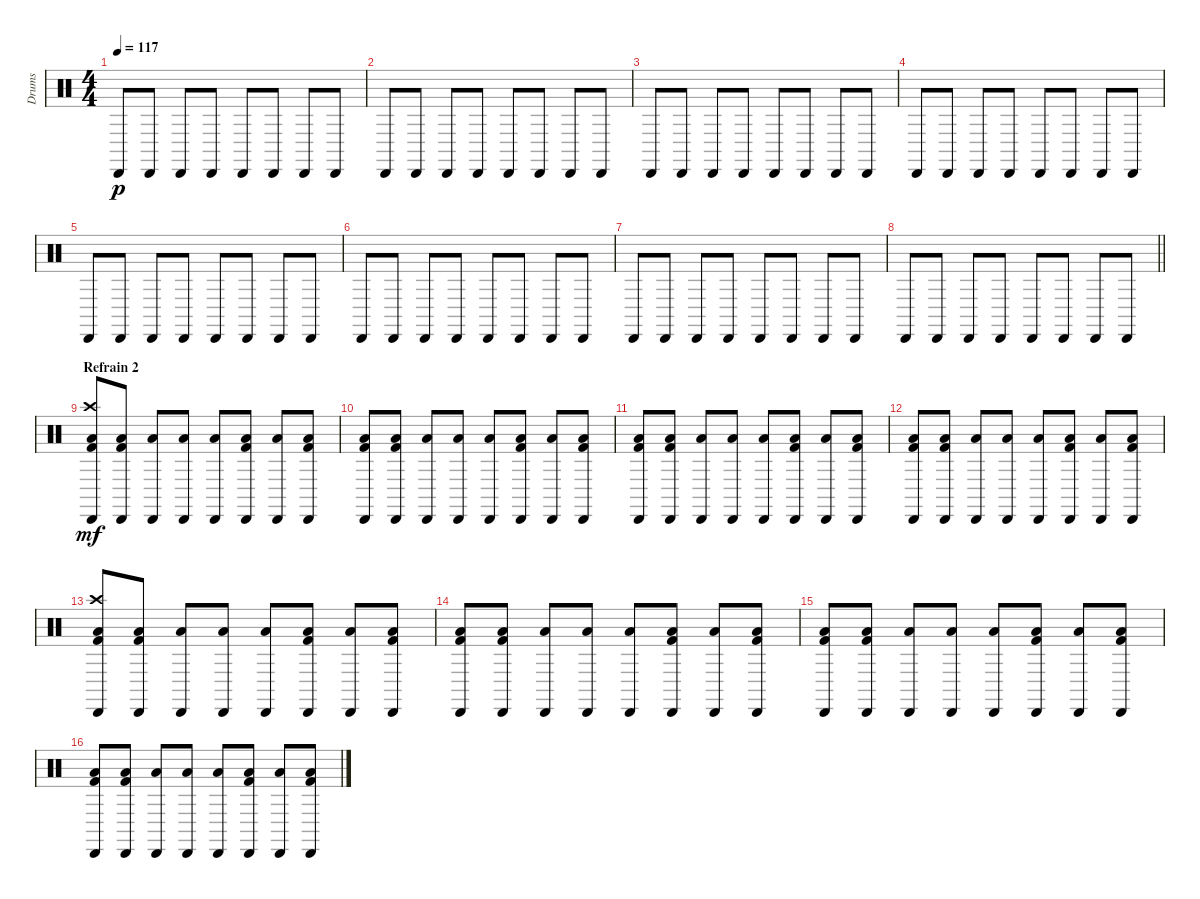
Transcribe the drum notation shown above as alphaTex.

\track ("Drums" "Drums") {instrument percussion}
\staff {score}
\articulation defaults
\ts (4 4)
\tempo 117
\clef neutral
\ks c "Cabasa (hit)".8{dy p} "Cabasa (hit)".8 "Cabasa (hit)".8 "Cabasa (hit)".8 "Cabasa (hit)".8 "Cabasa (hit)".8 "Cabasa (hit)".8 "Cabasa (hit)".8
|
"Cabasa (hit)".8 "Cabasa (hit)".8 "Cabasa (hit)".8 "Cabasa (hit)".8 "Cabasa (hit)".8 "Cabasa (hit)".8 "Cabasa (hit)".8 "Cabasa (hit)".8 |
"Cabasa (hit)".8 "Cabasa (hit)".8 "Cabasa (hit)".8 "Cabasa (hit)".8 "Cabasa (hit)".8 "Cabasa (hit)".8 "Cabasa (hit)".8 "Cabasa (hit)".8 |
"Cabasa (hit)".8 "Cabasa (hit)".8 "Cabasa (hit)".8 "Cabasa (hit)".8 "Cabasa (hit)".8 "Cabasa (hit)".8 "Cabasa (hit)".8 "Cabasa (hit)".8 |
"Cabasa (hit)".8 "Cabasa (hit)".8 "Cabasa (hit)".8 "Cabasa (hit)".8 "Cabasa (hit)".8 "Cabasa (hit)".8 "Cabasa (hit)".8 "Cabasa (hit)".8 |
"Cabasa (hit)".8 "Cabasa (hit)".8 "Cabasa (hit)".8 "Cabasa (hit)".8 "Cabasa (hit)".8 "Cabasa (hit)".8 "Cabasa (hit)".8 "Cabasa (hit)".8 |
"Cabasa (hit)".8 "Cabasa (hit)".8 "Cabasa (hit)".8 "Cabasa (hit)".8 "Cabasa (hit)".8 "Cabasa (hit)".8 "Cabasa (hit)".8 "Cabasa (hit)".8 |
\barLineRight lightlight "Cabasa (hit)".8 "Cabasa (hit)".8 "Cabasa (hit)".8 "Cabasa (hit)".8 "Cabasa (hit)".8 "Cabasa (hit)".8 "Cabasa (hit)".8 "Cabasa (hit)".8
|
\section ("" "Refrain 2")
("Crash high (hit)" "Cabasa (hit)" "Low Floor Tom (hit)" "Kick (hit) 2").8{dy mf} ("Cabasa (hit)" "Low Floor Tom (hit)" "Kick (hit) 2").8 ("Cabasa (hit)" "Low Floor Tom (hit)").8 ("Cabasa (hit)" "Low Floor Tom (hit)").8 ("Cabasa (hit)" "Low Floor Tom (hit)").8 ("Cabasa (hit)" "Low Floor Tom (hit)" "Kick (hit) 2").8 ("Cabasa (hit)" "Low Floor Tom (hit)").8 ("Cabasa (hit)" "Low Floor Tom (hit)" "Kick (hit) 2").8 |
("Cabasa (hit)" "Low Floor Tom (hit)" "Kick (hit) 2").8 ("Cabasa (hit)" "Low Floor Tom (hit)" "Kick (hit) 2").8 ("Cabasa (hit)" "Low Floor Tom (hit)").8 ("Cabasa (hit)" "Low Floor Tom (hit)").8 ("Cabasa (hit)" "Low Floor Tom (hit)").8 ("Cabasa (hit)" "Low Floor Tom (hit)" "Kick (hit) 2").8 ("Cabasa (hit)" "Low Floor Tom (hit)").8 ("Cabasa (hit)" "Low Floor Tom (hit)" "Kick (hit) 2").8 |
("Cabasa (hit)" "Low Floor Tom (hit)" "Kick (hit) 2").8 ("Cabasa (hit)" "Low Floor Tom (hit)" "Kick (hit) 2").8 ("Cabasa (hit)" "Low Floor Tom (hit)").8 ("Cabasa (hit)" "Low Floor Tom (hit)").8 ("Cabasa (hit)" "Low Floor Tom (hit)").8 ("Cabasa (hit)" "Low Floor Tom (hit)" "Kick (hit) 2").8 ("Cabasa (hit)" "Low Floor Tom (hit)").8 ("Cabasa (hit)" "Low Floor Tom (hit)" "Kick (hit) 2").8 |
("Cabasa (hit)" "Low Floor Tom (hit)" "Kick (hit) 2").8 ("Cabasa (hit)" "Low Floor Tom (hit)" "Kick (hit) 2").8 ("Cabasa (hit)" "Low Floor Tom (hit)").8 ("Cabasa (hit)" "Low Floor Tom (hit)").8 ("Cabasa (hit)" "Low Floor Tom (hit)").8 ("Cabasa (hit)" "Low Floor Tom (hit)" "Kick (hit) 2").8 ("Cabasa (hit)" "Low Floor Tom (hit)").8 ("Cabasa (hit)" "Low Floor Tom (hit)" "Kick (hit) 2").8 |
("Crash high (hit)" "Cabasa (hit)" "Low Floor Tom (hit)" "Kick (hit) 2").8 ("Cabasa (hit)" "Low Floor Tom (hit)" "Kick (hit) 2").8 ("Cabasa (hit)" "Low Floor Tom (hit)").8 ("Cabasa (hit)" "Low Floor Tom (hit)").8 ("Cabasa (hit)" "Low Floor Tom (hit)").8 ("Cabasa (hit)" "Low Floor Tom (hit)" "Kick (hit) 2").8 ("Cabasa (hit)" "Low Floor Tom (hit)").8 ("Cabasa (hit)" "Low Floor Tom (hit)" "Kick (hit) 2").8 |
("Cabasa (hit)" "Low Floor Tom (hit)" "Kick (hit) 2").8 ("Cabasa (hit)" "Low Floor Tom (hit)" "Kick (hit) 2").8 ("Cabasa (hit)" "Low Floor Tom (hit)").8 ("Cabasa (hit)" "Low Floor Tom (hit)").8 ("Cabasa (hit)" "Low Floor Tom (hit)").8 ("Cabasa (hit)" "Low Floor Tom (hit)" "Kick (hit) 2").8 ("Cabasa (hit)" "Low Floor Tom (hit)").8 ("Cabasa (hit)" "Low Floor Tom (hit)" "Kick (hit) 2").8 |
("Cabasa (hit)" "Low Floor Tom (hit)" "Kick (hit) 2").8 ("Cabasa (hit)" "Low Floor Tom (hit)" "Kick (hit) 2").8 ("Cabasa (hit)" "Low Floor Tom (hit)").8 ("Cabasa (hit)" "Low Floor Tom (hit)").8 ("Cabasa (hit)" "Low Floor Tom (hit)").8 ("Cabasa (hit)" "Low Floor Tom (hit)" "Kick (hit) 2").8 ("Cabasa (hit)" "Low Floor Tom (hit)").8 ("Cabasa (hit)" "Low Floor Tom (hit)" "Kick (hit) 2").8 |
("Cabasa (hit)" "Low Floor Tom (hit)" "Kick (hit) 2").8 ("Cabasa (hit)" "Low Floor Tom (hit)" "Kick (hit) 2").8 ("Cabasa (hit)" "Low Floor Tom (hit)").8 ("Cabasa (hit)" "Low Floor Tom (hit)").8 ("Cabasa (hit)" "Low Floor Tom (hit)").8 ("Cabasa (hit)" "Low Floor Tom (hit)" "Kick (hit) 2").8 ("Cabasa (hit)" "Low Floor Tom (hit)").8 ("Cabasa (hit)" "Low Floor Tom (hit)" "Kick (hit) 2").8
